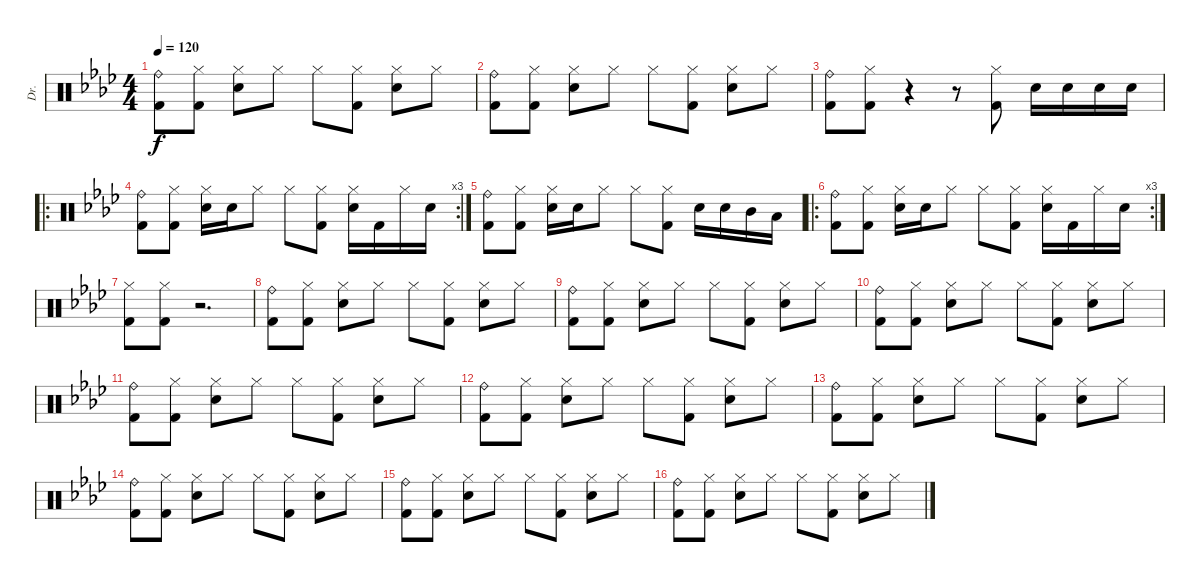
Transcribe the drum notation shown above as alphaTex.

\track ("Dr." "Dr.") {instrument percussion}
\staff {score}
\articulation defaults
\ts (4 4)
\tempo 120
\clef neutral
\ks ab
("Ride (bell)" "Kick (hit) 2").8{dy f} ("Hi-Hat (closed)" "Kick (hit) 2").8 ("Hi-Hat (closed)" "Electric Snare (hit)").8 "Hi-Hat (closed)".8 "Hi-Hat (closed)".8 ("Hi-Hat (closed)" "Kick (hit) 2").8 ("Hi-Hat (closed)" "Electric Snare (hit)").8 "Hi-Hat (closed)".8 |
("Ride (bell)" "Kick (hit) 2").8 ("Hi-Hat (closed)" "Kick (hit) 2").8 ("Hi-Hat (closed)" "Electric Snare (hit)").8 "Hi-Hat (closed)".8 "Hi-Hat (closed)".8 ("Hi-Hat (closed)" "Kick (hit) 2").8 ("Hi-Hat (closed)" "Electric Snare (hit)").8 "Hi-Hat (closed)".8 |
("Ride (bell)" "Kick (hit) 2").8 ("Hi-Hat (closed)" "Kick (hit) 2").8 r.4 r.8 ("Hi-Hat (closed)" "Kick (hit) 2").8 "Electric Snare (hit)".16 "Electric Snare (hit)".16 "Electric Snare (hit)".16 "Electric Snare (hit)".16 |
\ro
\rc 3
("Ride (bell)" "Kick (hit) 2").8 ("Hi-Hat (closed)" "Kick (hit) 2").8 ("Hi-Hat (closed)" "Electric Snare (hit)").16 "Electric Snare (hit)".16 "Hi-Hat (closed)".8 "Hi-Hat (closed)".8 ("Hi-Hat (closed)" "Kick (hit) 2").8 ("Hi-Hat (closed)" "Electric Snare (hit)").16 "Kick (hit) 2".16 "Hi-Hat (closed)".16 "Electric Snare (hit)".16 |
("Ride (bell)" "Kick (hit) 2").8 ("Hi-Hat (closed)" "Kick (hit) 2").8 ("Hi-Hat (closed)" "Electric Snare (hit)").16 "Electric Snare (hit)".16 "Hi-Hat (closed)".8 "Hi-Hat (closed)".8 ("Hi-Hat (closed)" "Kick (hit) 2").8 "Electric Snare (hit)".16 "Electric Snare (hit)".16 "Mid Tom (hit)".16 "Low Tom (hit)".16 |
\ro
\rc 3
("Ride (bell)" "Kick (hit) 2").8 ("Hi-Hat (closed)" "Kick (hit) 2").8 ("Hi-Hat (closed)" "Electric Snare (hit)").16 "Electric Snare (hit)".16 "Hi-Hat (closed)".8 "Hi-Hat (closed)".8 ("Hi-Hat (closed)" "Kick (hit) 2").8 ("Hi-Hat (closed)" "Electric Snare (hit)").16 "Kick (hit) 2".16 "Hi-Hat (closed)".16 "Electric Snare (hit)".16 |
("Hi-Hat (closed)" "Kick (hit) 2").8 ("Hi-Hat (closed)" "Kick (hit) 2").8 r.2{d} |
("Ride (bell)" "Kick (hit) 2").8 ("Hi-Hat (closed)" "Kick (hit) 2").8 ("Hi-Hat (closed)" "Electric Snare (hit)").8 "Hi-Hat (closed)".8 "Hi-Hat (closed)".8 ("Hi-Hat (closed)" "Kick (hit) 2").8 ("Hi-Hat (closed)" "Electric Snare (hit)").8 "Hi-Hat (closed)".8 |
("Ride (bell)" "Kick (hit) 2").8 ("Hi-Hat (closed)" "Kick (hit) 2").8 ("Hi-Hat (closed)" "Electric Snare (hit)").8 "Hi-Hat (closed)".8 "Hi-Hat (closed)".8 ("Hi-Hat (closed)" "Kick (hit) 2").8 ("Hi-Hat (closed)" "Electric Snare (hit)").8 "Hi-Hat (closed)".8 |
("Ride (bell)" "Kick (hit) 2").8 ("Hi-Hat (closed)" "Kick (hit) 2").8 ("Hi-Hat (closed)" "Electric Snare (hit)").8 "Hi-Hat (closed)".8 "Hi-Hat (closed)".8 ("Hi-Hat (closed)" "Kick (hit) 2").8 ("Hi-Hat (closed)" "Electric Snare (hit)").8 "Hi-Hat (closed)".8 |
("Ride (bell)" "Kick (hit) 2").8 ("Hi-Hat (closed)" "Kick (hit) 2").8 ("Hi-Hat (closed)" "Electric Snare (hit)").8 "Hi-Hat (closed)".8 "Hi-Hat (closed)".8 ("Hi-Hat (closed)" "Kick (hit) 2").8 ("Hi-Hat (closed)" "Electric Snare (hit)").8 "Hi-Hat (closed)".8 |
("Ride (bell)" "Kick (hit) 2").8 ("Hi-Hat (closed)" "Kick (hit) 2").8 ("Hi-Hat (closed)" "Electric Snare (hit)").8 "Hi-Hat (closed)".8 "Hi-Hat (closed)".8 ("Hi-Hat (closed)" "Kick (hit) 2").8 ("Hi-Hat (closed)" "Electric Snare (hit)").8 "Hi-Hat (closed)".8 |
("Ride (bell)" "Kick (hit) 2").8 ("Hi-Hat (closed)" "Kick (hit) 2").8 ("Hi-Hat (closed)" "Electric Snare (hit)").8 "Hi-Hat (closed)".8 "Hi-Hat (closed)".8 ("Hi-Hat (closed)" "Kick (hit) 2").8 ("Hi-Hat (closed)" "Electric Snare (hit)").8 "Hi-Hat (closed)".8 |
("Ride (bell)" "Kick (hit) 2").8 ("Hi-Hat (closed)" "Kick (hit) 2").8 ("Hi-Hat (closed)" "Electric Snare (hit)").8 "Hi-Hat (closed)".8 "Hi-Hat (closed)".8 ("Hi-Hat (closed)" "Kick (hit) 2").8 ("Hi-Hat (closed)" "Electric Snare (hit)").8 "Hi-Hat (closed)".8 |
("Ride (bell)" "Kick (hit) 2").8 ("Hi-Hat (closed)" "Kick (hit) 2").8 ("Hi-Hat (closed)" "Electric Snare (hit)").8 "Hi-Hat (closed)".8 "Hi-Hat (closed)".8 ("Hi-Hat (closed)" "Kick (hit) 2").8 ("Hi-Hat (closed)" "Electric Snare (hit)").8 "Hi-Hat (closed)".8 |
("Ride (bell)" "Kick (hit) 2").8 ("Hi-Hat (closed)" "Kick (hit) 2").8 ("Hi-Hat (closed)" "Electric Snare (hit)").8 "Hi-Hat (closed)".8 "Hi-Hat (closed)".8 ("Hi-Hat (closed)" "Kick (hit) 2").8 ("Hi-Hat (closed)" "Electric Snare (hit)").8 "Hi-Hat (closed)".8
